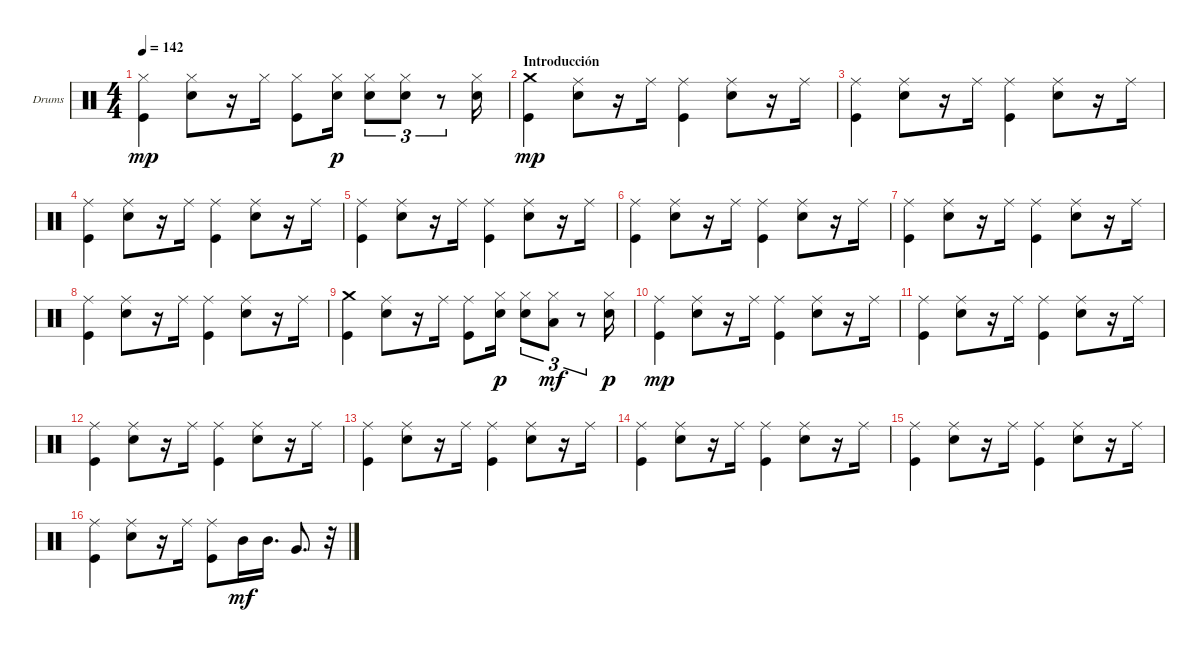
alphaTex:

\defaultSystemsLayout 4
\bracketExtendMode groupsimilarinstruments
\firstSystemTrackNameOrientation horizontal
\otherSystemsTrackNameOrientation horizontal
\track ("Drumkit" "Drums") {instrument percussion}
\staff {score}
\articulation defaults
\ts (4 4)
\tempo 142
\clef neutral
\ks c
("Kick (hit)" "Hi-Hat (closed)").4{dy mp} ("Snare (hit) 2" "Hi-Hat (closed)").8 r.16 "Hi-Hat (closed)".16 ("Kick (hit)" "Hi-Hat (closed)").8 ("Hi-Hat (closed)" "Snare (hit) 2").16{dy p} ("Hi-Hat (closed)" "Snare (hit) 2").8{tu (3 2)} ("Hi-Hat (closed)" "Snare (hit) 2").8{tu (3 2)} r.8{tu (3 2)} ("Snare (hit) 2" "Hi-Hat (closed)").16 |
\section ("" "Introducción")
("Kick (hit)" "Crash medium (hit)").4{dy mp} ("Snare (hit) 2" "Ride (middle)").8 r.16 "Ride (middle)".16 ("Kick (hit)" "Ride (middle)").4 ("Snare (hit) 2" "Ride (middle)").8 r.16 "Ride (middle)".16 |
("Kick (hit)" "Ride (middle)").4 ("Snare (hit) 2" "Ride (middle)").8 r.16 "Ride (middle)".16 ("Kick (hit)" "Ride (middle)").4 ("Snare (hit) 2" "Ride (middle)").8 r.16 "Ride (middle)".16 |
("Kick (hit)" "Ride (middle)").4 ("Snare (hit) 2" "Ride (middle)").8 r.16 "Ride (middle)".16 ("Kick (hit)" "Ride (middle)").4 ("Snare (hit) 2" "Ride (middle)").8 r.16 "Ride (middle)".16 |
("Kick (hit)" "Ride (middle)").4 ("Snare (hit) 2" "Ride (middle)").8 r.16 "Ride (middle)".16 ("Kick (hit)" "Ride (middle)").4 ("Snare (hit) 2" "Ride (middle)").8 r.16 "Ride (middle)".16 |
("Kick (hit)" "Ride (middle)").4 ("Snare (hit) 2" "Ride (middle)").8 r.16 "Ride (middle)".16 ("Kick (hit)" "Ride (middle)").4 ("Snare (hit) 2" "Ride (middle)").8 r.16 "Ride (middle)".16 |
("Kick (hit)" "Ride (middle)").4 ("Snare (hit) 2" "Ride (middle)").8 r.16 "Ride (middle)".16 ("Kick (hit)" "Ride (middle)").4 ("Snare (hit) 2" "Ride (middle)").8 r.16 "Ride (middle)".16 |
("Kick (hit)" "Ride (middle)").4 ("Snare (hit) 2" "Ride (middle)").8 r.16 "Ride (middle)".16 ("Kick (hit)" "Ride (middle)").4 ("Snare (hit) 2" "Ride (middle)").8 r.16 "Ride (middle)".16 |
("Kick (hit)" "Crash medium (hit)").4 ("Snare (hit) 2" "Ride (middle)").8 r.16 "Ride (middle)".16 ("Kick (hit)" "Ride (middle)").8 ("Hi-Hat (closed)" "Snare (hit) 2").16{dy p} ("Hi-Hat (closed)" "Snare (hit) 2").8{tu (3 2)} ("Hi-Hat (closed)" "Low Tom (hit)").8{tu (3 2) dy mf} r.8{tu (3 2)} ("Snare (hit) 2" "Hi-Hat (closed)").16{dy p} |
("Kick (hit)" "Ride (middle)").4{dy mp} ("Snare (hit) 2" "Ride (middle)").8 r.16 "Ride (middle)".16 ("Kick (hit)" "Ride (middle)").4 ("Snare (hit) 2" "Ride (middle)").8 r.16 "Ride (middle)".16 |
("Kick (hit)" "Ride (middle)").4 ("Snare (hit) 2" "Ride (middle)").8 r.16 "Ride (middle)".16 ("Kick (hit)" "Ride (middle)").4 ("Snare (hit) 2" "Ride (middle)").8 r.16 "Ride (middle)".16 |
("Kick (hit)" "Ride (middle)").4 ("Snare (hit) 2" "Ride (middle)").8 r.16 "Ride (middle)".16 ("Kick (hit)" "Ride (middle)").4 ("Snare (hit) 2" "Ride (middle)").8 r.16 "Ride (middle)".16 |
("Kick (hit)" "Ride (middle)").4 ("Snare (hit) 2" "Ride (middle)").8 r.16 "Ride (middle)".16 ("Kick (hit)" "Ride (middle)").4 ("Snare (hit) 2" "Ride (middle)").8 r.16 "Ride (middle)".16 |
("Kick (hit)" "Ride (middle)").4 ("Snare (hit) 2" "Ride (middle)").8 r.16 "Ride (middle)".16 ("Kick (hit)" "Ride (middle)").4 ("Snare (hit) 2" "Ride (middle)").8 r.16 "Ride (middle)".16 |
("Kick (hit)" "Ride (middle)").4 ("Snare (hit) 2" "Ride (middle)").8 r.16 "Ride (middle)".16 ("Kick (hit)" "Ride (middle)").4 ("Snare (hit) 2" "Ride (middle)").8 r.16 "Ride (middle)".16 |
("Kick (hit)" "Ride (middle)").4 ("Snare (hit) 2" "Ride (middle)").8 r.16 "Ride (middle)".16 ("Kick (hit)" "Ride (middle)").8 "Mid Tom (hit)".16{dy mf} "Mid Tom (hit)".16{d} "Very Low Tom (hit)".8{d} r.32
